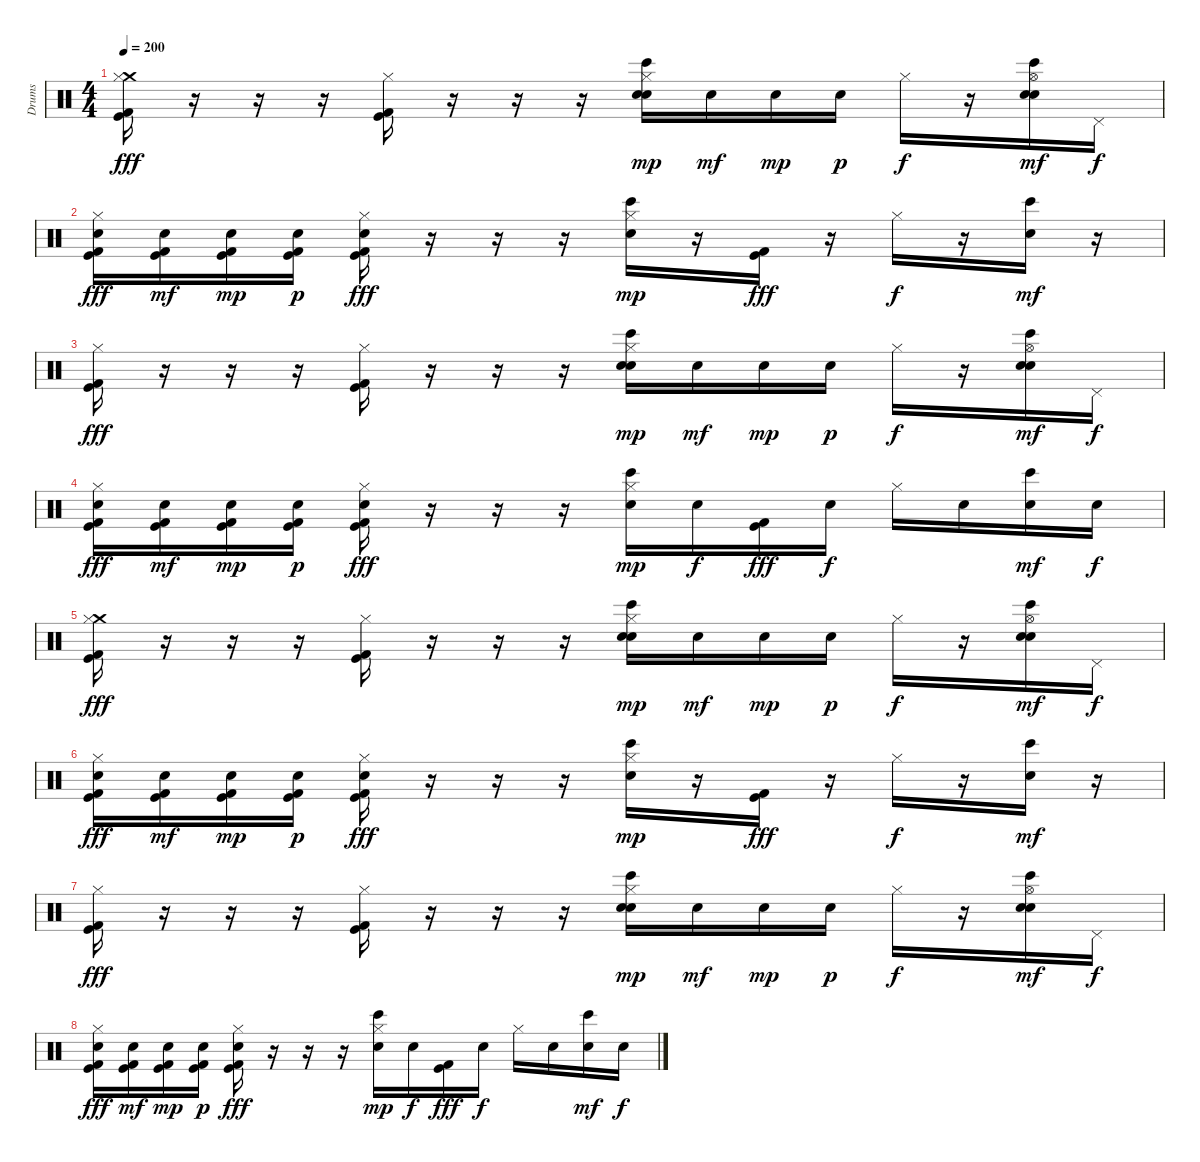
\track ("Drums" "Drums") {instrument percussion}
\staff {score}
\articulation defaults
\ts (4 4)
\tempo 200
\clef neutral
\ks c
("Crash medium (hit)" "Hi-Hat (closed)" "Kick (hit)" "Kick (hit) 2").16{dy fff} r.16 r.16 r.16 ("Hi-Hat (closed)" "Kick (hit)" "Kick (hit) 2").16 r.16 r.16 r.16 ("Hi-Hat (closed)" "Bongo High (hit)" "Snare (hit) 2" "Electric Snare (hit)").16{dy mp} "Electric Snare (hit)".16{dy mf} "Electric Snare (hit)".16{dy mp} "Electric Snare (hit)".16{dy p} "Hi-Hat (closed)".16{dy f} r.16 ("Hi-Hat (open)" "Bongo High (hit)" "Snare (hit) 2" "Electric Snare (hit)").16{dy mf} "Pedal Hi-Hat (hit)".16{dy f} |
("Hi-Hat (closed)" "Metronome (bell)" "Kick (hit)" "Kick (hit) 2").16{dy fff} ("Metronome (bell)" "Kick (hit)" "Kick (hit) 2").16{dy mf} ("Metronome (bell)" "Kick (hit)" "Kick (hit) 2").16{dy mp} ("Metronome (bell)" "Kick (hit)" "Kick (hit) 2").16{dy p} ("Hi-Hat (closed)" "Metronome (bell)" "Kick (hit)" "Kick (hit) 2").16{dy fff} r.16 r.16 r.16 ("Hi-Hat (closed)" "Bongo High (hit)" "Electric Snare (hit)").16{dy mp} r.16 ("Kick (hit)" "Kick (hit) 2").16{dy fff} r.16 "Hi-Hat (closed)".16{dy f} r.16 ("Bongo High (hit)" "Electric Snare (hit)").16{dy mf} r.16 |
("Hi-Hat (closed)" "Kick (hit)" "Kick (hit) 2").16{dy fff} r.16 r.16 r.16 ("Hi-Hat (closed)" "Kick (hit)" "Kick (hit) 2").16 r.16 r.16 r.16 ("Hi-Hat (closed)" "Bongo High (hit)" "Snare (hit) 2" "Electric Snare (hit)").16{dy mp} "Electric Snare (hit)".16{dy mf} "Electric Snare (hit)".16{dy mp} "Electric Snare (hit)".16{dy p} "Hi-Hat (closed)".16{dy f} r.16 ("Hi-Hat (open)" "Bongo High (hit)" "Snare (hit) 2" "Electric Snare (hit)").16{dy mf} "Pedal Hi-Hat (hit)".16{dy f} |
("Hi-Hat (closed)" "Metronome (bell)" "Kick (hit)" "Kick (hit) 2").16{dy fff} ("Metronome (bell)" "Kick (hit)" "Kick (hit) 2").16{dy mf} ("Metronome (bell)" "Kick (hit)" "Kick (hit) 2").16{dy mp} ("Metronome (bell)" "Kick (hit)" "Kick (hit) 2").16{dy p} ("Hi-Hat (closed)" "Metronome (bell)" "Kick (hit)" "Kick (hit) 2").16{dy fff} r.16 r.16 r.16 ("Hi-Hat (closed)" "Bongo High (hit)" "Electric Snare (hit)").16{dy mp} "Metronome (bell)".16{dy f} ("Kick (hit)" "Kick (hit) 2").16{dy fff} "Metronome (bell)".16{dy f} "Hi-Hat (closed)".16 "Metronome (bell)".16 ("Bongo High (hit)" "Electric Snare (hit)").16{dy mf} "Metronome (bell)".16{dy f} |
("Crash medium (hit)" "Hi-Hat (closed)" "Kick (hit)" "Kick (hit) 2").16{dy fff} r.16 r.16 r.16 ("Hi-Hat (closed)" "Kick (hit)" "Kick (hit) 2").16 r.16 r.16 r.16 ("Hi-Hat (closed)" "Bongo High (hit)" "Snare (hit) 2" "Electric Snare (hit)").16{dy mp} "Electric Snare (hit)".16{dy mf} "Electric Snare (hit)".16{dy mp} "Electric Snare (hit)".16{dy p} "Hi-Hat (closed)".16{dy f} r.16 ("Hi-Hat (open)" "Bongo High (hit)" "Snare (hit) 2" "Electric Snare (hit)").16{dy mf} "Pedal Hi-Hat (hit)".16{dy f} |
("Hi-Hat (closed)" "Metronome (bell)" "Kick (hit)" "Kick (hit) 2").16{dy fff} ("Metronome (bell)" "Kick (hit)" "Kick (hit) 2").16{dy mf} ("Metronome (bell)" "Kick (hit)" "Kick (hit) 2").16{dy mp} ("Metronome (bell)" "Kick (hit)" "Kick (hit) 2").16{dy p} ("Hi-Hat (closed)" "Metronome (bell)" "Kick (hit)" "Kick (hit) 2").16{dy fff} r.16 r.16 r.16 ("Hi-Hat (closed)" "Bongo High (hit)" "Electric Snare (hit)").16{dy mp} r.16 ("Kick (hit)" "Kick (hit) 2").16{dy fff} r.16 "Hi-Hat (closed)".16{dy f} r.16 ("Bongo High (hit)" "Electric Snare (hit)").16{dy mf} r.16 |
("Hi-Hat (closed)" "Kick (hit)" "Kick (hit) 2").16{dy fff} r.16 r.16 r.16 ("Hi-Hat (closed)" "Kick (hit)" "Kick (hit) 2").16 r.16 r.16 r.16 ("Hi-Hat (closed)" "Bongo High (hit)" "Snare (hit) 2" "Electric Snare (hit)").16{dy mp} "Electric Snare (hit)".16{dy mf} "Electric Snare (hit)".16{dy mp} "Electric Snare (hit)".16{dy p} "Hi-Hat (closed)".16{dy f} r.16 ("Hi-Hat (open)" "Bongo High (hit)" "Snare (hit) 2" "Electric Snare (hit)").16{dy mf} "Pedal Hi-Hat (hit)".16{dy f} |
("Hi-Hat (closed)" "Metronome (bell)" "Kick (hit)" "Kick (hit) 2").16{dy fff} ("Metronome (bell)" "Kick (hit)" "Kick (hit) 2").16{dy mf} ("Metronome (bell)" "Kick (hit)" "Kick (hit) 2").16{dy mp} ("Metronome (bell)" "Kick (hit)" "Kick (hit) 2").16{dy p} ("Hi-Hat (closed)" "Metronome (bell)" "Kick (hit)" "Kick (hit) 2").16{dy fff} r.16 r.16 r.16 ("Hi-Hat (closed)" "Bongo High (hit)" "Electric Snare (hit)").16{dy mp} "Metronome (bell)".16{dy f} ("Kick (hit)" "Kick (hit) 2").16{dy fff} "Metronome (bell)".16{dy f} "Hi-Hat (closed)".16 "Metronome (bell)".16 ("Bongo High (hit)" "Electric Snare (hit)").16{dy mf} "Metronome (bell)".16{dy f}
